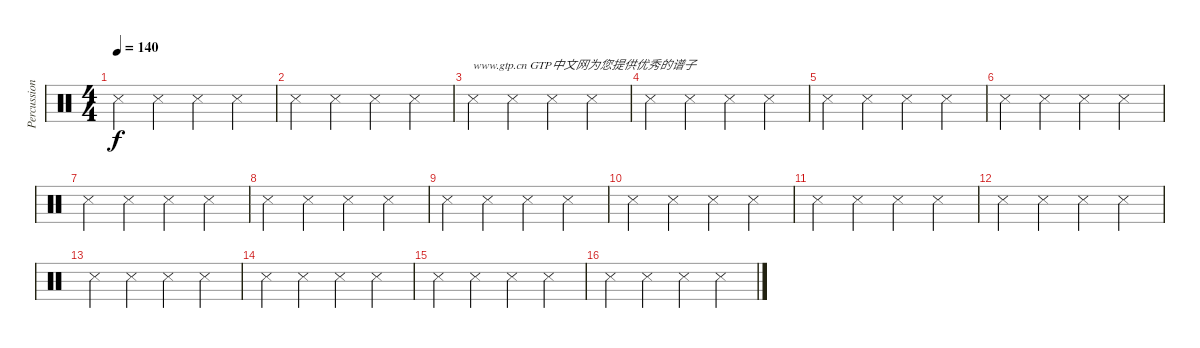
\track ("Percussions" "Percussion") {instrument percussion}
\staff {score}
\articulation defaults
\ts (4 4)
\tempo 140
\clef neutral
\ks c "Metronome (hit)".4{dy f} "Metronome (hit)".4 "Metronome (hit)".4 "Metronome (hit)".4
|
"Metronome (hit)".4 "Metronome (hit)".4 "Metronome (hit)".4 "Metronome (hit)".4 |
"Metronome (hit)".4{txt "www.gtp.cn GTP中文网为您提供优秀的谱子"} "Metronome (hit)".4 "Metronome (hit)".4 "Metronome (hit)".4 |
"Metronome (hit)".4 "Metronome (hit)".4 "Metronome (hit)".4 "Metronome (hit)".4 |
"Metronome (hit)".4 "Metronome (hit)".4 "Metronome (hit)".4 "Metronome (hit)".4 |
"Metronome (hit)".4 "Metronome (hit)".4 "Metronome (hit)".4 "Metronome (hit)".4 |
"Metronome (hit)".4 "Metronome (hit)".4 "Metronome (hit)".4 "Metronome (hit)".4 |
"Metronome (hit)".4 "Metronome (hit)".4 "Metronome (hit)".4 "Metronome (hit)".4 |
"Metronome (hit)".4 "Metronome (hit)".4 "Metronome (hit)".4 "Metronome (hit)".4 |
"Metronome (hit)".4 "Metronome (hit)".4 "Metronome (hit)".4 "Metronome (hit)".4 |
"Metronome (hit)".4 "Metronome (hit)".4 "Metronome (hit)".4 "Metronome (hit)".4 |
"Metronome (hit)".4 "Metronome (hit)".4 "Metronome (hit)".4 "Metronome (hit)".4 |
"Metronome (hit)".4 "Metronome (hit)".4 "Metronome (hit)".4 "Metronome (hit)".4 |
"Metronome (hit)".4 "Metronome (hit)".4 "Metronome (hit)".4 "Metronome (hit)".4 |
"Metronome (hit)".4 "Metronome (hit)".4 "Metronome (hit)".4 "Metronome (hit)".4 |
"Metronome (hit)".4 "Metronome (hit)".4 "Metronome (hit)".4 "Metronome (hit)".4
